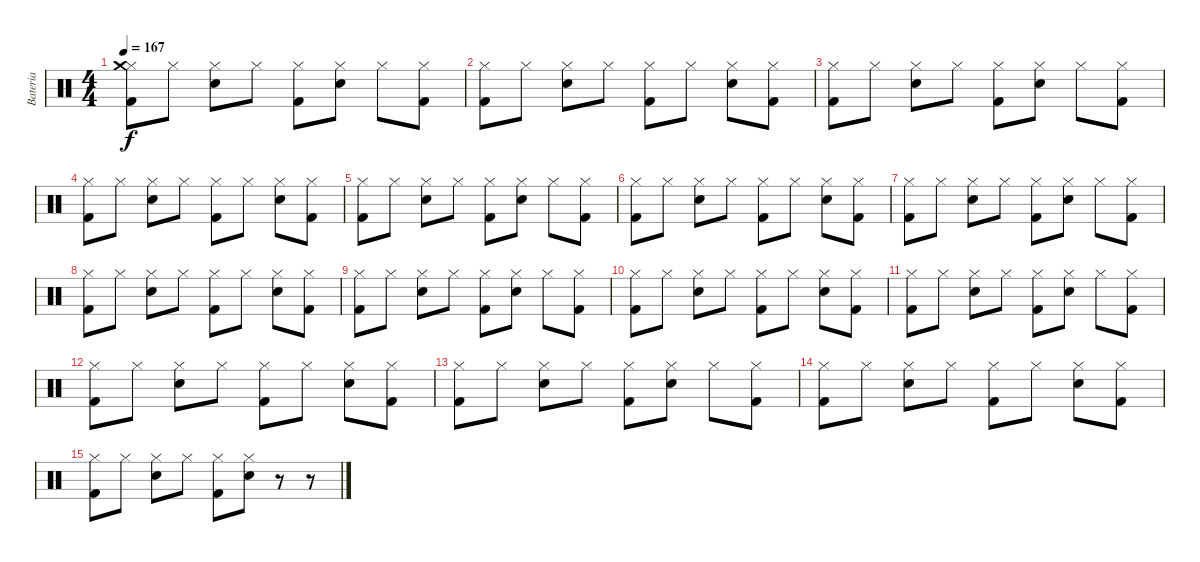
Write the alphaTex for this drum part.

\track ("Bateria" "Bateria") {instrument percussion}
\staff {score}
\articulation defaults
\ts (4 4)
\tempo 167
\clef neutral
\ks c
("Kick (hit) 2" "Hi-Hat (closed)" "Crash medium (hit)").8{dy f} "Hi-Hat (closed)".8 ("Snare (hit) 2" "Hi-Hat (closed)").8 "Hi-Hat (closed)".8 ("Kick (hit) 2" "Hi-Hat (closed)").8 ("Snare (hit) 2" "Hi-Hat (closed)").8 "Hi-Hat (closed)".8 ("Kick (hit) 2" "Hi-Hat (closed)").8 |
("Kick (hit) 2" "Hi-Hat (closed)").8 "Hi-Hat (closed)".8 ("Snare (hit) 2" "Hi-Hat (closed)").8 "Hi-Hat (closed)".8 ("Kick (hit) 2" "Hi-Hat (closed)").8 "Hi-Hat (closed)".8 ("Snare (hit) 2" "Hi-Hat (closed)").8 ("Kick (hit) 2" "Hi-Hat (closed)").8 |
("Kick (hit) 2" "Hi-Hat (closed)").8 "Hi-Hat (closed)".8 ("Snare (hit) 2" "Hi-Hat (closed)").8 "Hi-Hat (closed)".8 ("Kick (hit) 2" "Hi-Hat (closed)").8 ("Snare (hit) 2" "Hi-Hat (closed)").8 "Hi-Hat (closed)".8 ("Kick (hit) 2" "Hi-Hat (closed)").8 |
("Kick (hit) 2" "Hi-Hat (closed)").8 "Hi-Hat (closed)".8 ("Snare (hit) 2" "Hi-Hat (closed)").8 "Hi-Hat (closed)".8 ("Kick (hit) 2" "Hi-Hat (closed)").8 "Hi-Hat (closed)".8 ("Snare (hit) 2" "Hi-Hat (closed)").8 ("Kick (hit) 2" "Hi-Hat (closed)").8 |
("Kick (hit) 2" "Hi-Hat (closed)").8 "Hi-Hat (closed)".8 ("Snare (hit) 2" "Hi-Hat (closed)").8 "Hi-Hat (closed)".8 ("Kick (hit) 2" "Hi-Hat (closed)").8 ("Snare (hit) 2" "Hi-Hat (closed)").8 "Hi-Hat (closed)".8 ("Kick (hit) 2" "Hi-Hat (closed)").8 |
("Kick (hit) 2" "Hi-Hat (closed)").8 "Hi-Hat (closed)".8 ("Snare (hit) 2" "Hi-Hat (closed)").8 "Hi-Hat (closed)".8 ("Kick (hit) 2" "Hi-Hat (closed)").8 "Hi-Hat (closed)".8 ("Snare (hit) 2" "Hi-Hat (closed)").8 ("Kick (hit) 2" "Hi-Hat (closed)").8 |
("Kick (hit) 2" "Hi-Hat (closed)").8 "Hi-Hat (closed)".8 ("Snare (hit) 2" "Hi-Hat (closed)").8 "Hi-Hat (closed)".8 ("Kick (hit) 2" "Hi-Hat (closed)").8 ("Snare (hit) 2" "Hi-Hat (closed)").8 "Hi-Hat (closed)".8 ("Kick (hit) 2" "Hi-Hat (closed)").8 |
("Kick (hit) 2" "Hi-Hat (closed)").8 "Hi-Hat (closed)".8 ("Snare (hit) 2" "Hi-Hat (closed)").8 "Hi-Hat (closed)".8 ("Kick (hit) 2" "Hi-Hat (closed)").8 "Hi-Hat (closed)".8 ("Snare (hit) 2" "Hi-Hat (closed)").8 ("Kick (hit) 2" "Hi-Hat (closed)").8 |
("Kick (hit) 2" "Hi-Hat (closed)").8 "Hi-Hat (closed)".8 ("Snare (hit) 2" "Hi-Hat (closed)").8 "Hi-Hat (closed)".8 ("Kick (hit) 2" "Hi-Hat (closed)").8 ("Snare (hit) 2" "Hi-Hat (closed)").8 "Hi-Hat (closed)".8 ("Kick (hit) 2" "Hi-Hat (closed)").8 |
("Kick (hit) 2" "Hi-Hat (closed)").8 "Hi-Hat (closed)".8 ("Snare (hit) 2" "Hi-Hat (closed)").8 "Hi-Hat (closed)".8 ("Kick (hit) 2" "Hi-Hat (closed)").8 "Hi-Hat (closed)".8 ("Snare (hit) 2" "Hi-Hat (closed)").8 ("Kick (hit) 2" "Hi-Hat (closed)").8 |
("Kick (hit) 2" "Hi-Hat (closed)").8 "Hi-Hat (closed)".8 ("Snare (hit) 2" "Hi-Hat (closed)").8 "Hi-Hat (closed)".8 ("Kick (hit) 2" "Hi-Hat (closed)").8 ("Snare (hit) 2" "Hi-Hat (closed)").8 "Hi-Hat (closed)".8 ("Kick (hit) 2" "Hi-Hat (closed)").8 |
("Kick (hit) 2" "Hi-Hat (closed)").8 "Hi-Hat (closed)".8 ("Snare (hit) 2" "Hi-Hat (closed)").8 "Hi-Hat (closed)".8 ("Kick (hit) 2" "Hi-Hat (closed)").8 "Hi-Hat (closed)".8 ("Snare (hit) 2" "Hi-Hat (closed)").8 ("Kick (hit) 2" "Hi-Hat (closed)").8 |
("Kick (hit) 2" "Hi-Hat (closed)").8 "Hi-Hat (closed)".8 ("Snare (hit) 2" "Hi-Hat (closed)").8 "Hi-Hat (closed)".8 ("Kick (hit) 2" "Hi-Hat (closed)").8 ("Snare (hit) 2" "Hi-Hat (closed)").8 "Hi-Hat (closed)".8 ("Kick (hit) 2" "Hi-Hat (closed)").8 |
("Kick (hit) 2" "Hi-Hat (closed)").8 "Hi-Hat (closed)".8 ("Snare (hit) 2" "Hi-Hat (closed)").8 "Hi-Hat (closed)".8 ("Kick (hit) 2" "Hi-Hat (closed)").8 "Hi-Hat (closed)".8 ("Snare (hit) 2" "Hi-Hat (closed)").8 ("Kick (hit) 2" "Hi-Hat (closed)").8 |
("Kick (hit) 2" "Hi-Hat (closed)").8 "Hi-Hat (closed)".8 ("Snare (hit) 2" "Hi-Hat (closed)").8 "Hi-Hat (closed)".8 ("Kick (hit) 2" "Hi-Hat (closed)").8 ("Snare (hit) 2" "Hi-Hat (closed)").8 r.8 r.8
